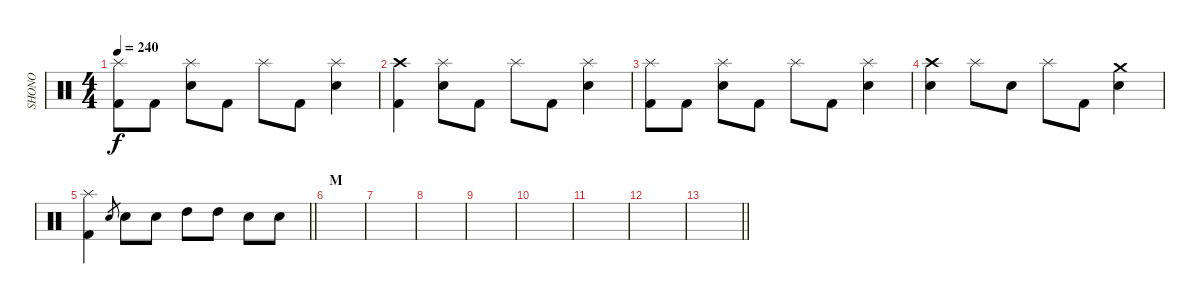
\track ("SHONO" "SHONO") {instrument percussion}
\staff {score}
\articulation defaults
\ts (4 4)
\tempo 240
\clef neutral
\ks c
("Splash (hit)" "Kick (hit) 2").8{dy f} "Kick (hit) 2".8 ("Splash (hit)" "Snare (hit) 2").8 "Kick (hit) 2".8 "Splash (hit)".8 "Kick (hit) 2".8 ("Splash (hit)" "Snare (hit) 2").4 |
("Crash high (hit)" "Kick (hit) 2").4 ("Splash (hit)" "Snare (hit) 2").8 "Kick (hit) 2".8 "Splash (hit)".8 "Kick (hit) 2".8 ("Splash (hit)" "Snare (hit) 2").4 |
("Splash (hit)" "Kick (hit) 2").8 "Kick (hit) 2".8 ("Splash (hit)" "Snare (hit) 2").8 "Kick (hit) 2".8 "Splash (hit)".8 "Kick (hit) 2".8 ("Splash (hit)" "Snare (hit) 2").4 |
("Crash high (hit)" "Snare (hit) 2").4 "Splash (hit)".8 "Snare (hit) 2".8 "Splash (hit)".8 "Kick (hit) 2".8 ("Crash medium (hit)" "Snare (hit) 2").4 |
\barLineRight lightlight
("Splash (hit)" "Kick (hit) 2").4 "Snare (hit) 2".8{gr} "Snare (hit) 2".8 "Snare (hit) 2".8 "High Tom (hit)".8 "High Tom (hit)".8 "Snare (hit) 2".8 "Snare (hit) 2".8 |
\section ("" "M")
|
|
|
|
|
|
|
\barLineRight lightlight
